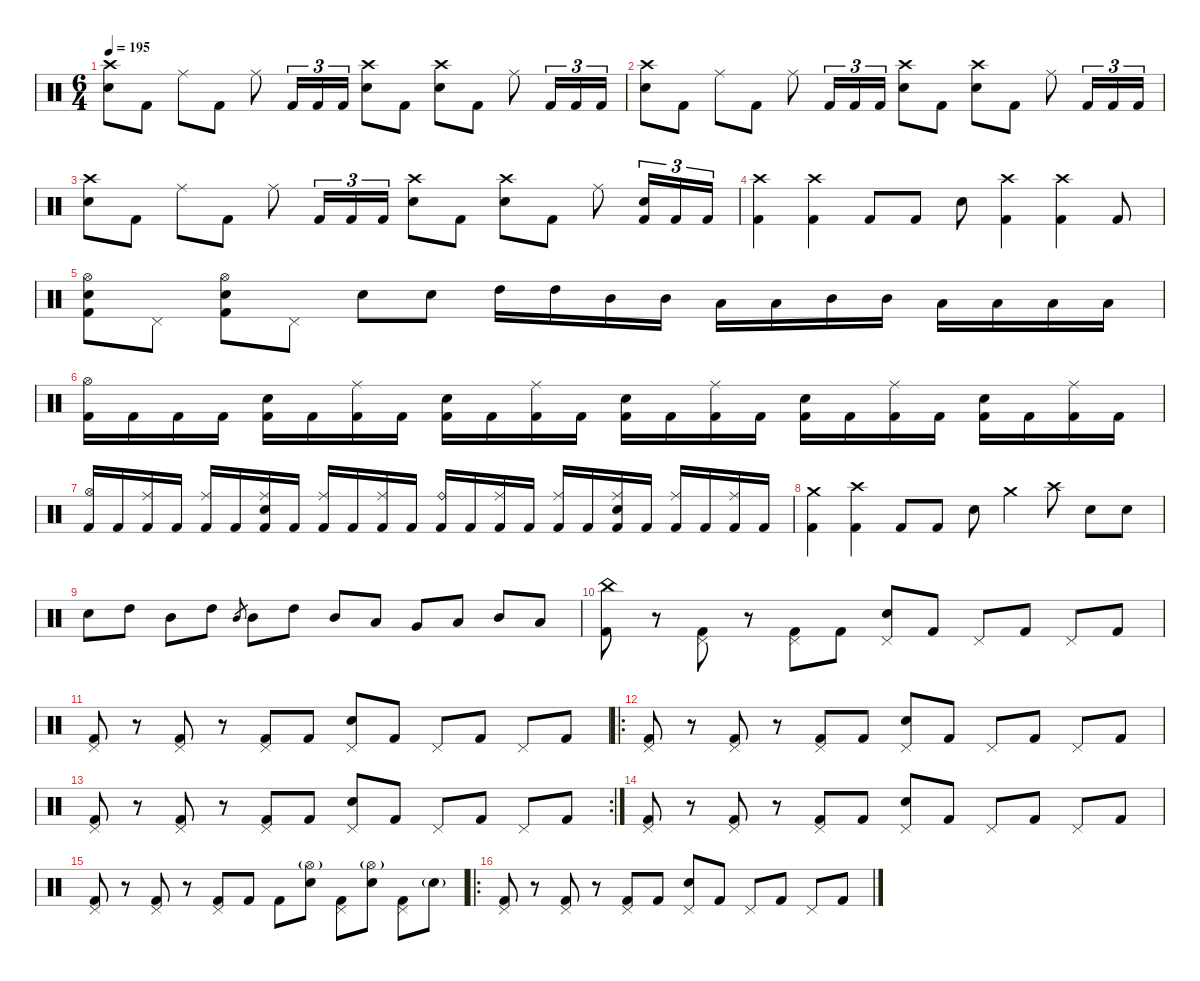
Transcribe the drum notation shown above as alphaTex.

\defaultSystemsLayout 4
\hideDynamics
\bracketExtendMode nobrackets
\singleTrackTrackNamePolicy hidden
\multiTrackTrackNamePolicy hidden
\firstSystemTrackNameMode fullname
\firstSystemTrackNameOrientation horizontal
\otherSystemsTrackNameOrientation horizontal
\track ("Drums" "drm.") {instrument percussion}
\staff {score}
\articulation defaults
\ts (6 4)
\tempo 195
\clef neutral
\ks c
("Crash high (hit)" "Snare (hit) 2").8{dy f beam Down} "Kick (hit) 2".8{beam Down} "Ride (middle)".8{beam Down} "Kick (hit) 2".8{beam Down} "Ride (middle)".8{beam Down} "Kick (hit) 2".16{tu (3 2) beam Up} "Kick (hit) 2".16{tu (3 2) beam Up} "Kick (hit) 2".16{tu (3 2) beam Up} ("Crash high (hit)" "Snare (hit) 2").8{beam Down} "Kick (hit) 2".8{beam Down} ("Crash high (hit)" "Snare (hit) 2").8{beam Down} "Kick (hit) 2".8{beam Down} "Ride (middle)".8{beam Down} "Kick (hit) 2".16{tu (3 2) beam Up} "Kick (hit) 2".16{tu (3 2) beam Up} "Kick (hit) 2".16{tu (3 2) beam Up} |
("Crash high (hit)" "Snare (hit) 2").8{beam Down} "Kick (hit) 2".8{beam Down} "Ride (middle)".8{beam Down} "Kick (hit) 2".8{beam Down} "Ride (middle)".8{beam Down} "Kick (hit) 2".16{tu (3 2) beam Up} "Kick (hit) 2".16{tu (3 2) beam Up} "Kick (hit) 2".16{tu (3 2) beam Up} ("Crash high (hit)" "Snare (hit) 2").8{beam Down} "Kick (hit) 2".8{beam Down} ("Crash high (hit)" "Snare (hit) 2").8{beam Down} "Kick (hit) 2".8{beam Down} "Ride (middle)".8{beam Down} "Kick (hit) 2".16{tu (3 2) beam Up} "Kick (hit) 2".16{tu (3 2) beam Up} "Kick (hit) 2".16{tu (3 2) beam Up} |
("Crash high (hit)" "Snare (hit) 2").8{beam Down} "Kick (hit) 2".8{beam Down} "Ride (middle)".8{beam Down} "Kick (hit) 2".8{beam Down} "Ride (middle)".8{beam Down} "Kick (hit) 2".16{tu (3 2) beam Up} "Kick (hit) 2".16{tu (3 2) beam Up} "Kick (hit) 2".16{tu (3 2) beam Up} ("Crash high (hit)" "Snare (hit) 2").8{beam Down} "Kick (hit) 2".8{beam Down} ("Crash high (hit)" "Snare (hit) 2").8{beam Down} "Kick (hit) 2".8{beam Down} "Ride (middle)".8{beam Down} ("Snare (hit) 2" "Kick (hit) 2").16{tu (3 2) beam Up} "Kick (hit) 2".16{tu (3 2) beam Up} "Kick (hit) 2".16{tu (3 2) beam Up} |
("Crash high (hit)" "Kick (hit) 2").4{beam Down} ("Crash high (hit)" "Kick (hit) 2").4{beam Down} "Kick (hit) 2".8{beam Up} "Kick (hit) 2".8{beam Up} "Snare (hit) 2".8{beam Down} ("Crash high (hit)" "Kick (hit) 2").4{beam Down} ("Crash high (hit)" "Kick (hit) 2").4{beam Down} "Kick (hit) 2".8{beam Up} |
("Hi-Hat (open)" "Snare (hit) 2" "Kick (hit) 2").8{beam Down} "Pedal Hi-Hat (hit)".8{beam Down} ("Hi-Hat (open)" "Snare (hit) 2" "Kick (hit) 2").8{beam Down} "Pedal Hi-Hat (hit)".8{beam Down} "Snare (hit) 2".8{beam Down} "Snare (hit) 2".8{beam Down} "High Tom (hit)".16{beam Down} "High Tom (hit)".16{beam Down} "Mid Tom (hit)".16{beam Down} "Mid Tom (hit)".16{beam Down} "Low Tom (hit)".16{beam Down} "Low Tom (hit)".16{beam Down} "Mid Tom (hit)".16{beam Down} "Mid Tom (hit)".16{beam Down} "Low Tom (hit)".16{beam Down} "Low Tom (hit)".16{beam Down} "Low Tom (hit)".16{beam Down} "Low Tom (hit)".16{beam Down} |
("Hi-Hat (open)" "Kick (hit) 2").16{beam Down} "Kick (hit) 2".16{beam Down} "Kick (hit) 2".16{beam Down} "Kick (hit) 2".16{beam Down} ("Snare (hit) 2" "Kick (hit) 2").16{beam Down} "Kick (hit) 2".16{beam Down} ("Ride (middle)" "Kick (hit) 2").16{beam Down} "Kick (hit) 2".16{beam Down} ("Snare (hit) 2" "Kick (hit) 2").16{beam Down} "Kick (hit) 2".16{beam Down} ("Ride (middle)" "Kick (hit) 2").16{beam Down} "Kick (hit) 2".16{beam Down} ("Snare (hit) 2" "Kick (hit) 2").16{beam Down} "Kick (hit) 2".16{beam Down} ("Ride (middle)" "Kick (hit) 2").16{beam Down} "Kick (hit) 2".16{beam Down} ("Snare (hit) 2" "Kick (hit) 2").16{beam Down} "Kick (hit) 2".16{beam Down} ("Ride (middle)" "Kick (hit) 2").16{beam Down} "Kick (hit) 2".16{beam Down} ("Snare (hit) 2" "Kick (hit) 2").16{beam Down} "Kick (hit) 2".16{beam Down} ("Ride (middle)" "Kick (hit) 2").16{beam Down} "Kick (hit) 2".16{beam Down} |
("Hi-Hat (open)" "Kick (hit) 2").16{beam Up} "Kick (hit) 2".16{beam Up} ("Ride (middle)" "Kick (hit) 2").16{beam Up} "Kick (hit) 2".16{beam Up} ("Ride (middle)" "Kick (hit) 2").16{beam Up} "Kick (hit) 2".16{beam Up} ("Ride (middle)" "Snare (hit) 2" "Kick (hit) 2").16{beam Up} "Kick (hit) 2".16{beam Up} ("Ride (middle)" "Kick (hit) 2").16{beam Up} "Kick (hit) 2".16{beam Up} ("Ride (middle)" "Kick (hit) 2").16{beam Up} "Kick (hit) 2".16{beam Up} ("Ride (bell)" "Kick (hit) 2").16{beam Up} "Kick (hit) 2".16{beam Up} ("Ride (middle)" "Kick (hit) 2").16{beam Up} "Kick (hit) 2".16{beam Up} ("Ride (middle)" "Kick (hit) 2").16{beam Up} "Kick (hit) 2".16{beam Up} ("Ride (middle)" "Snare (hit) 2" "Kick (hit) 2").16{beam Up} "Kick (hit) 2".16{beam Up} ("Ride (middle)" "Kick (hit) 2").16{beam Up} "Kick (hit) 2".16{beam Up} ("Ride (middle)" "Kick (hit) 2").16{beam Up} "Kick (hit) 2".16{beam Up} |
("Crash medium (hit)" "Kick (hit) 2").4{beam Down} ("Crash high (hit)" "Kick (hit) 2").4{beam Down} "Kick (hit) 2".8{beam Up} "Kick (hit) 2".8{beam Up} "Snare (hit) 2".8{beam Down} "Crash medium (hit)".4{beam Down} "Crash high (hit)".8{beam Down} "Snare (hit) 2".8{beam Down} "Snare (hit) 2".8{beam Down} |
"Snare (hit) 2".8{beam Down} "High Tom (hit)".8{beam Down} "Mid Tom (hit)".8{beam Down} "High Tom (hit)".8{beam Down} "Mid Tom (hit)".8{gr dy mf beam Up} "Mid Tom (hit)".8{dy f beam Down} "High Tom (hit)".8{beam Down} "Mid Tom (hit)".8{beam Up} "Low Tom (hit)".8{beam Up} "Very Low Tom (hit)".8{beam Up} "Low Tom (hit)".8{beam Up} "Mid Tom (hit)".8{beam Up} "Low Tom (hit)".8{beam Up} |
("China (hit)" "Kick (hit) 2").8{beam Down} r.8{beam Down} ("Pedal Hi-Hat (hit)" "Kick (hit) 2").8{beam Down} r.8{beam Down} ("Pedal Hi-Hat (hit)" "Kick (hit) 2").8{beam Down} "Kick (hit) 2".8{beam Down} ("Pedal Hi-Hat (hit)" "Snare (hit) 2").8{beam Up} "Kick (hit) 2".8{beam Up} "Pedal Hi-Hat (hit)".8{beam Up} "Kick (hit) 2".8{beam Up} "Pedal Hi-Hat (hit)".8{beam Up} "Kick (hit) 2".8{beam Up} |
("Pedal Hi-Hat (hit)" "Kick (hit) 2").8{beam Up} r.8{beam Up} ("Pedal Hi-Hat (hit)" "Kick (hit) 2").8{beam Up} r.8{beam Up} ("Pedal Hi-Hat (hit)" "Kick (hit) 2").8{beam Up} "Kick (hit) 2".8{beam Up} ("Pedal Hi-Hat (hit)" "Snare (hit) 2").8{beam Up} "Kick (hit) 2".8{beam Up} "Pedal Hi-Hat (hit)".8{beam Up} "Kick (hit) 2".8{beam Up} "Pedal Hi-Hat (hit)".8{beam Up} "Kick (hit) 2".8{beam Up} |
\ro
("Pedal Hi-Hat (hit)" "Kick (hit) 2").8{beam Up} r.8{beam Up} ("Pedal Hi-Hat (hit)" "Kick (hit) 2").8{beam Up} r.8{beam Up} ("Pedal Hi-Hat (hit)" "Kick (hit) 2").8{beam Up} "Kick (hit) 2".8{beam Up} ("Pedal Hi-Hat (hit)" "Snare (hit) 2").8{beam Up} "Kick (hit) 2".8{beam Up} "Pedal Hi-Hat (hit)".8{beam Up} "Kick (hit) 2".8{beam Up} "Pedal Hi-Hat (hit)".8{beam Up} "Kick (hit) 2".8{beam Up} |
\rc 2
("Pedal Hi-Hat (hit)" "Kick (hit) 2").8{beam Up} r.8{beam Up} ("Pedal Hi-Hat (hit)" "Kick (hit) 2").8{beam Up} r.8{beam Up} ("Pedal Hi-Hat (hit)" "Kick (hit) 2").8{beam Up} "Kick (hit) 2".8{beam Up} ("Pedal Hi-Hat (hit)" "Snare (hit) 2").8{beam Up} "Kick (hit) 2".8{beam Up} "Pedal Hi-Hat (hit)".8{beam Up} "Kick (hit) 2".8{beam Up} "Pedal Hi-Hat (hit)".8{beam Up} "Kick (hit) 2".8{beam Up} |
("Pedal Hi-Hat (hit)" "Kick (hit) 2").8{beam Up} r.8{beam Up} ("Pedal Hi-Hat (hit)" "Kick (hit) 2").8{beam Up} r.8{beam Up} ("Pedal Hi-Hat (hit)" "Kick (hit) 2").8{beam Up} "Kick (hit) 2".8{beam Up} ("Pedal Hi-Hat (hit)" "Snare (hit) 2").8{beam Up} "Kick (hit) 2".8{beam Up} "Pedal Hi-Hat (hit)".8{beam Up} "Kick (hit) 2".8{beam Up} "Pedal Hi-Hat (hit)".8{beam Up} "Kick (hit) 2".8{beam Up} |
("Pedal Hi-Hat (hit)" "Kick (hit) 2").8{beam Up} r.8{beam Up} ("Pedal Hi-Hat (hit)" "Kick (hit) 2").8{beam Up} r.8{beam Up} ("Pedal Hi-Hat (hit)" "Kick (hit) 2").8{beam Up} "Kick (hit) 2".8{beam Up} "Kick (hit) 2".8{beam Down} ("Hi-Hat (open)"{g} "Snare (hit) 2").8{beam Down} ("Pedal Hi-Hat (hit)" "Kick (hit) 2").8{beam Down} ("Hi-Hat (open)"{g} "Snare (hit) 2").8{beam Down} ("Pedal Hi-Hat (hit)" "Kick (hit) 2").8{beam Down} "Snare (hit) 2"{g}.8{dy mf beam Down} |
\ro
("Pedal Hi-Hat (hit)" "Kick (hit) 2").8{dy f beam Up} r.8{beam Up} ("Pedal Hi-Hat (hit)" "Kick (hit) 2").8{beam Up} r.8{beam Up} ("Pedal Hi-Hat (hit)" "Kick (hit) 2").8{beam Up} "Kick (hit) 2".8{beam Up} ("Pedal Hi-Hat (hit)" "Snare (hit) 2").8{beam Up} "Kick (hit) 2".8{beam Up} "Pedal Hi-Hat (hit)".8{beam Up} "Kick (hit) 2".8{beam Up} "Pedal Hi-Hat (hit)".8{beam Up} "Kick (hit) 2".8{beam Up}
